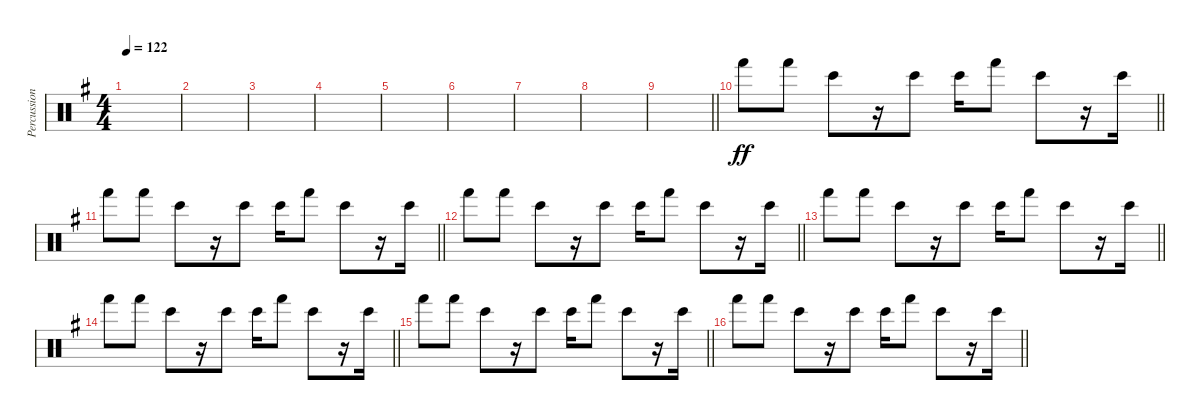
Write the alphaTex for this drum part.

\track ("Percussion" "Percussion") {instrument percussion}
\staff {score}
\articulation defaults
\ts (4 4)
\tempo 122
\clef neutral
\ks g
|
|
|
|
|
|
|
|
\barLineRight lightlight
|
\barLineRight lightlight "Hand (hit)".8{dy ff} "Hand (hit)".8 "Bongo High (hit)".8
r.16 "Bongo High (hit)".8 "Bongo High (hit)".16 "Hand (hit)".8 "Bongo High (hit)".8 r.16 "Bongo High (hit)".16 |
\barLineRight lightlight "Hand (hit)".8 "Hand (hit)".8 "Bongo High (hit)".8
r.16 "Bongo High (hit)".8 "Bongo High (hit)".16 "Hand (hit)".8 "Bongo High (hit)".8 r.16 "Bongo High (hit)".16 |
\barLineRight lightlight "Hand (hit)".8 "Hand (hit)".8 "Bongo High (hit)".8
r.16 "Bongo High (hit)".8 "Bongo High (hit)".16 "Hand (hit)".8 "Bongo High (hit)".8 r.16 "Bongo High (hit)".16 |
\barLineRight lightlight "Hand (hit)".8 "Hand (hit)".8 "Bongo High (hit)".8
r.16 "Bongo High (hit)".8 "Bongo High (hit)".16 "Hand (hit)".8 "Bongo High (hit)".8 r.16 "Bongo High (hit)".16 |
\barLineRight lightlight "Hand (hit)".8 "Hand (hit)".8 "Bongo High (hit)".8
r.16 "Bongo High (hit)".8 "Bongo High (hit)".16 "Hand (hit)".8 "Bongo High (hit)".8 r.16 "Bongo High (hit)".16 |
\barLineRight lightlight "Hand (hit)".8 "Hand (hit)".8 "Bongo High (hit)".8
r.16 "Bongo High (hit)".8 "Bongo High (hit)".16 "Hand (hit)".8 "Bongo High (hit)".8 r.16 "Bongo High (hit)".16 |
\barLineRight lightlight "Hand (hit)".8 "Hand (hit)".8 "Bongo High (hit)".8
r.16 "Bongo High (hit)".8 "Bongo High (hit)".16 "Hand (hit)".8 "Bongo High (hit)".8 r.16 "Bongo High (hit)".16
